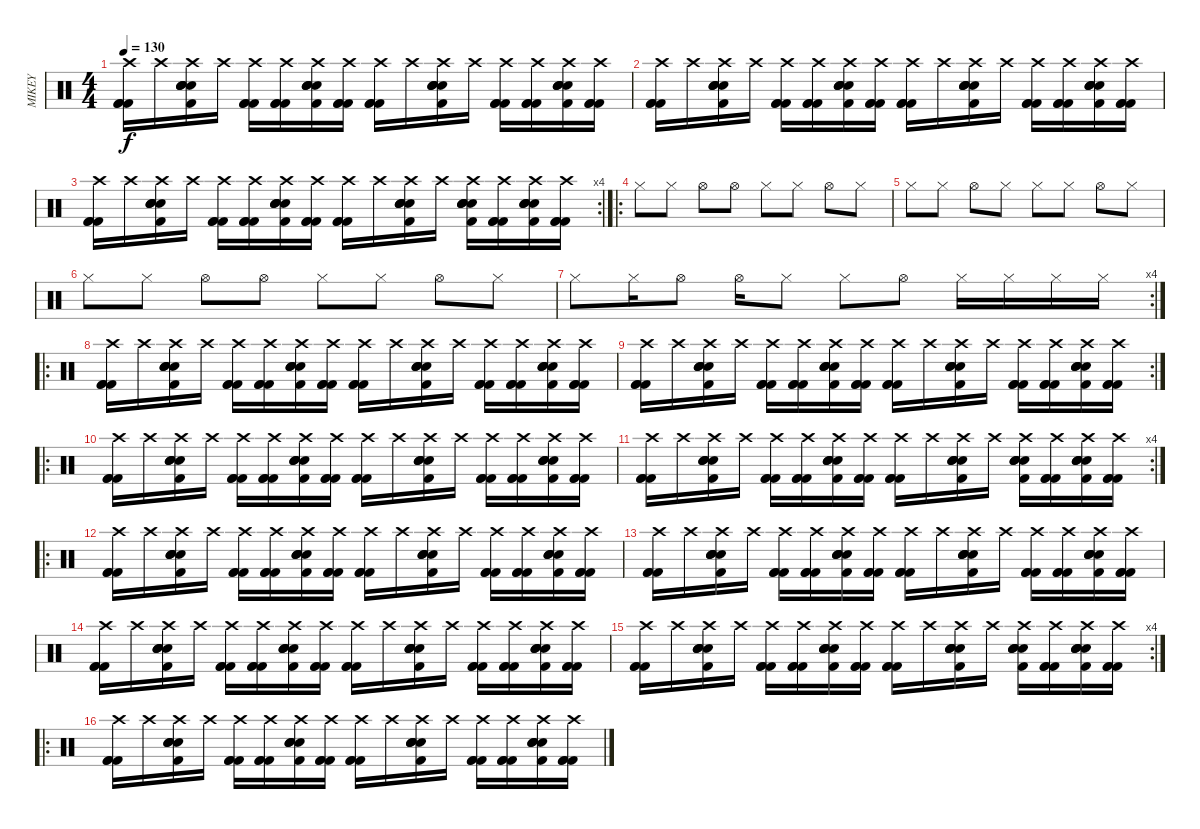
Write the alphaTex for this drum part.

\track ("MIKEY" "MIKEY") {instrument percussion}
\staff {score}
\articulation defaults
\ts (4 4)
\tempo 130
\clef neutral
\ks c
("Crash high (hit)" "Kick (hit) 2" "Kick (hit) 2" "Kick (hit) 2").16{dy f} "Crash high (hit)".16 ("Crash high (hit)" "Snare (hit) 2" "Kick (hit) 2" "Electric Snare (hit)" "Electric Snare (hit)" "Electric Snare (hit)").16 "Crash high (hit)".16 ("Crash high (hit)" "Kick (hit) 2" "Kick (hit) 2" "Kick (hit) 2").16 ("Crash high (hit)" "Kick (hit) 2" "Kick (hit) 2" "Kick (hit) 2").16 ("Crash high (hit)" "Snare (hit) 2" "Kick (hit) 2" "Electric Snare (hit)" "Electric Snare (hit)" "Electric Snare (hit)").16 ("Crash high (hit)" "Kick (hit) 2" "Kick (hit) 2" "Kick (hit) 2").16 ("Crash high (hit)" "Kick (hit) 2" "Kick (hit) 2" "Kick (hit) 2").16 "Crash high (hit)".16 ("Crash high (hit)" "Snare (hit) 2" "Kick (hit) 2" "Electric Snare (hit)" "Electric Snare (hit)" "Electric Snare (hit)").16 "Crash high (hit)".16 ("Crash high (hit)" "Kick (hit) 2" "Kick (hit) 2" "Kick (hit) 2").16 ("Crash high (hit)" "Kick (hit) 2" "Kick (hit) 2" "Kick (hit) 2").16 ("Crash high (hit)" "Snare (hit) 2" "Kick (hit) 2" "Electric Snare (hit)" "Electric Snare (hit)" "Electric Snare (hit)").16 ("Crash high (hit)" "Kick (hit) 2" "Kick (hit) 2" "Kick (hit) 2").16 |
("Crash high (hit)" "Kick (hit) 2" "Kick (hit) 2" "Kick (hit) 2").16 "Crash high (hit)".16 ("Crash high (hit)" "Snare (hit) 2" "Kick (hit) 2" "Electric Snare (hit)" "Electric Snare (hit)" "Electric Snare (hit)").16 "Crash high (hit)".16 ("Crash high (hit)" "Kick (hit) 2" "Kick (hit) 2" "Kick (hit) 2").16 ("Crash high (hit)" "Kick (hit) 2" "Kick (hit) 2" "Kick (hit) 2").16 ("Crash high (hit)" "Snare (hit) 2" "Kick (hit) 2" "Electric Snare (hit)" "Electric Snare (hit)" "Electric Snare (hit)").16 ("Crash high (hit)" "Kick (hit) 2" "Kick (hit) 2" "Kick (hit) 2").16 ("Crash high (hit)" "Kick (hit) 2" "Kick (hit) 2" "Kick (hit) 2").16 "Crash high (hit)".16 ("Crash high (hit)" "Snare (hit) 2" "Kick (hit) 2" "Electric Snare (hit)" "Electric Snare (hit)" "Electric Snare (hit)").16 "Crash high (hit)".16 ("Crash high (hit)" "Kick (hit) 2" "Kick (hit) 2" "Kick (hit) 2").16 ("Crash high (hit)" "Kick (hit) 2" "Kick (hit) 2" "Kick (hit) 2").16 ("Crash high (hit)" "Snare (hit) 2" "Kick (hit) 2" "Electric Snare (hit)" "Electric Snare (hit)" "Electric Snare (hit)").16 ("Crash high (hit)" "Kick (hit) 2" "Kick (hit) 2" "Kick (hit) 2").16 |
\rc 4
("Crash high (hit)" "Kick (hit) 2" "Kick (hit) 2" "Kick (hit) 2").16 "Crash high (hit)".16 ("Crash high (hit)" "Snare (hit) 2" "Kick (hit) 2" "Electric Snare (hit)" "Electric Snare (hit)" "Electric Snare (hit)").16 "Crash high (hit)".16 ("Crash high (hit)" "Kick (hit) 2" "Kick (hit) 2" "Kick (hit) 2").16 ("Crash high (hit)" "Kick (hit) 2" "Kick (hit) 2" "Kick (hit) 2").16 ("Crash high (hit)" "Snare (hit) 2" "Kick (hit) 2" "Electric Snare (hit)" "Electric Snare (hit)" "Electric Snare (hit)").16 ("Crash high (hit)" "Kick (hit) 2" "Kick (hit) 2" "Kick (hit) 2").16 ("Crash high (hit)" "Kick (hit) 2" "Kick (hit) 2" "Kick (hit) 2").16 "Crash high (hit)".16 ("Crash high (hit)" "Snare (hit) 2" "Kick (hit) 2" "Electric Snare (hit)" "Electric Snare (hit)" "Electric Snare (hit)").16 "Crash high (hit)".16 ("Crash high (hit)" "Snare (hit) 2" "Kick (hit) 2" "Electric Snare (hit)" "Electric Snare (hit)" "Electric Snare (hit)").16 ("Crash high (hit)" "Kick (hit) 2" "Kick (hit) 2" "Kick (hit) 2").16 ("Crash high (hit)" "Snare (hit) 2" "Kick (hit) 2" "Electric Snare (hit)" "Electric Snare (hit)" "Electric Snare (hit)").16 ("Crash high (hit)" "Kick (hit) 2" "Kick (hit) 2" "Kick (hit) 2").16 |
\ro "Hi-Hat (closed)".8 "Hi-Hat (closed)".8 "Hi-Hat (open)".8 "Hi-Hat (open)".8 "Hi-Hat (closed)".8 "Hi-Hat (closed)".8 "Hi-Hat (open)".8 "Hi-Hat (closed)".8
|
"Hi-Hat (closed)".8 "Hi-Hat (closed)".8 "Hi-Hat (open)".8 "Hi-Hat (closed)".8 "Hi-Hat (closed)".8 "Hi-Hat (closed)".8 "Hi-Hat (open)".8 "Hi-Hat (closed)".8 |
"Hi-Hat (closed)".8 "Hi-Hat (closed)".8 "Hi-Hat (open)".8 "Hi-Hat (open)".8 "Hi-Hat (closed)".8 "Hi-Hat (closed)".8 "Hi-Hat (open)".8 "Hi-Hat (closed)".8 |
\rc 4 "Hi-Hat (closed)".8 "Hi-Hat (closed)".16 "Hi-Hat (open)".8 "Hi-Hat (open)".16 "Hi-Hat (closed)".8 "Hi-Hat (closed)".8 "Hi-Hat (open)".8 "Hi-Hat (closed)".16 "Hi-Hat (closed)".16 "Hi-Hat (closed)".16 "Hi-Hat (closed)".16
|
\ro
("Crash high (hit)" "Kick (hit) 2" "Kick (hit) 2" "Kick (hit) 2").16 "Crash high (hit)".16 ("Crash high (hit)" "Snare (hit) 2" "Kick (hit) 2" "Electric Snare (hit)" "Electric Snare (hit)" "Electric Snare (hit)").16 "Crash high (hit)".16 ("Crash high (hit)" "Kick (hit) 2" "Kick (hit) 2" "Kick (hit) 2").16 ("Crash high (hit)" "Kick (hit) 2" "Kick (hit) 2" "Kick (hit) 2").16 ("Crash high (hit)" "Snare (hit) 2" "Kick (hit) 2" "Electric Snare (hit)" "Electric Snare (hit)" "Electric Snare (hit)").16 ("Crash high (hit)" "Kick (hit) 2" "Kick (hit) 2" "Kick (hit) 2").16 ("Crash high (hit)" "Kick (hit) 2" "Kick (hit) 2" "Kick (hit) 2").16 "Crash high (hit)".16 ("Crash high (hit)" "Snare (hit) 2" "Kick (hit) 2" "Electric Snare (hit)" "Electric Snare (hit)" "Electric Snare (hit)").16 "Crash high (hit)".16 ("Crash high (hit)" "Kick (hit) 2" "Kick (hit) 2" "Kick (hit) 2").16 ("Crash high (hit)" "Kick (hit) 2" "Kick (hit) 2" "Kick (hit) 2").16 ("Crash high (hit)" "Snare (hit) 2" "Kick (hit) 2" "Electric Snare (hit)" "Electric Snare (hit)" "Electric Snare (hit)").16 ("Crash high (hit)" "Kick (hit) 2" "Kick (hit) 2" "Kick (hit) 2").16 |
\rc 2
("Crash high (hit)" "Kick (hit) 2" "Kick (hit) 2" "Kick (hit) 2").16 "Crash high (hit)".16 ("Crash high (hit)" "Snare (hit) 2" "Kick (hit) 2" "Electric Snare (hit)" "Electric Snare (hit)" "Electric Snare (hit)").16 "Crash high (hit)".16 ("Crash high (hit)" "Kick (hit) 2" "Kick (hit) 2" "Kick (hit) 2").16 ("Crash high (hit)" "Kick (hit) 2" "Kick (hit) 2" "Kick (hit) 2").16 ("Crash high (hit)" "Snare (hit) 2" "Kick (hit) 2" "Electric Snare (hit)" "Electric Snare (hit)" "Electric Snare (hit)").16 ("Crash high (hit)" "Kick (hit) 2" "Kick (hit) 2" "Kick (hit) 2").16 ("Crash high (hit)" "Kick (hit) 2" "Kick (hit) 2" "Kick (hit) 2").16 "Crash high (hit)".16 ("Crash high (hit)" "Snare (hit) 2" "Kick (hit) 2" "Electric Snare (hit)" "Electric Snare (hit)" "Electric Snare (hit)").16 "Crash high (hit)".16 ("Crash high (hit)" "Kick (hit) 2" "Kick (hit) 2" "Kick (hit) 2").16 ("Crash high (hit)" "Kick (hit) 2" "Kick (hit) 2" "Kick (hit) 2").16 ("Crash high (hit)" "Snare (hit) 2" "Kick (hit) 2" "Electric Snare (hit)" "Electric Snare (hit)" "Electric Snare (hit)").16 ("Crash high (hit)" "Kick (hit) 2" "Kick (hit) 2" "Kick (hit) 2").16 |
\ro
("Crash high (hit)" "Kick (hit) 2" "Kick (hit) 2" "Kick (hit) 2").16 "Crash high (hit)".16 ("Crash high (hit)" "Snare (hit) 2" "Kick (hit) 2" "Electric Snare (hit)" "Electric Snare (hit)" "Electric Snare (hit)").16 "Crash high (hit)".16 ("Crash high (hit)" "Kick (hit) 2" "Kick (hit) 2" "Kick (hit) 2").16 ("Crash high (hit)" "Kick (hit) 2" "Kick (hit) 2" "Kick (hit) 2").16 ("Crash high (hit)" "Snare (hit) 2" "Kick (hit) 2" "Electric Snare (hit)" "Electric Snare (hit)" "Electric Snare (hit)").16 ("Crash high (hit)" "Kick (hit) 2" "Kick (hit) 2" "Kick (hit) 2").16 ("Crash high (hit)" "Kick (hit) 2" "Kick (hit) 2" "Kick (hit) 2").16 "Crash high (hit)".16 ("Crash high (hit)" "Snare (hit) 2" "Kick (hit) 2" "Electric Snare (hit)" "Electric Snare (hit)" "Electric Snare (hit)").16 "Crash high (hit)".16 ("Crash high (hit)" "Kick (hit) 2" "Kick (hit) 2" "Kick (hit) 2").16 ("Crash high (hit)" "Kick (hit) 2" "Kick (hit) 2" "Kick (hit) 2").16 ("Crash high (hit)" "Snare (hit) 2" "Kick (hit) 2" "Electric Snare (hit)" "Electric Snare (hit)" "Electric Snare (hit)").16 ("Crash high (hit)" "Kick (hit) 2" "Kick (hit) 2" "Kick (hit) 2").16 |
\rc 4
("Crash high (hit)" "Kick (hit) 2" "Kick (hit) 2" "Kick (hit) 2").16 "Crash high (hit)".16 ("Crash high (hit)" "Snare (hit) 2" "Kick (hit) 2" "Electric Snare (hit)" "Electric Snare (hit)" "Electric Snare (hit)").16 "Crash high (hit)".16 ("Crash high (hit)" "Kick (hit) 2" "Kick (hit) 2" "Kick (hit) 2").16 ("Crash high (hit)" "Kick (hit) 2" "Kick (hit) 2" "Kick (hit) 2").16 ("Crash high (hit)" "Snare (hit) 2" "Kick (hit) 2" "Electric Snare (hit)" "Electric Snare (hit)" "Electric Snare (hit)").16 ("Crash high (hit)" "Kick (hit) 2" "Kick (hit) 2" "Kick (hit) 2").16 ("Crash high (hit)" "Kick (hit) 2" "Kick (hit) 2" "Kick (hit) 2").16 "Crash high (hit)".16 ("Crash high (hit)" "Snare (hit) 2" "Kick (hit) 2" "Electric Snare (hit)" "Electric Snare (hit)" "Electric Snare (hit)").16 "Crash high (hit)".16 ("Crash high (hit)" "Snare (hit) 2" "Kick (hit) 2" "Electric Snare (hit)" "Electric Snare (hit)" "Electric Snare (hit)").16 ("Crash high (hit)" "Kick (hit) 2" "Kick (hit) 2" "Kick (hit) 2").16 ("Crash high (hit)" "Snare (hit) 2" "Kick (hit) 2" "Electric Snare (hit)" "Electric Snare (hit)" "Electric Snare (hit)").16 ("Crash high (hit)" "Kick (hit) 2" "Kick (hit) 2" "Kick (hit) 2").16 |
\ro
("Crash high (hit)" "Kick (hit) 2" "Kick (hit) 2" "Kick (hit) 2").16 "Crash high (hit)".16 ("Crash high (hit)" "Snare (hit) 2" "Kick (hit) 2" "Electric Snare (hit)" "Electric Snare (hit)" "Electric Snare (hit)").16 "Crash high (hit)".16 ("Crash high (hit)" "Kick (hit) 2" "Kick (hit) 2" "Kick (hit) 2").16 ("Crash high (hit)" "Kick (hit) 2" "Kick (hit) 2" "Kick (hit) 2").16 ("Crash high (hit)" "Snare (hit) 2" "Kick (hit) 2" "Electric Snare (hit)" "Electric Snare (hit)" "Electric Snare (hit)").16 ("Crash high (hit)" "Kick (hit) 2" "Kick (hit) 2" "Kick (hit) 2").16 ("Crash high (hit)" "Kick (hit) 2" "Kick (hit) 2" "Kick (hit) 2").16 "Crash high (hit)".16 ("Crash high (hit)" "Snare (hit) 2" "Kick (hit) 2" "Electric Snare (hit)" "Electric Snare (hit)" "Electric Snare (hit)").16 "Crash high (hit)".16 ("Crash high (hit)" "Kick (hit) 2" "Kick (hit) 2" "Kick (hit) 2").16 ("Crash high (hit)" "Kick (hit) 2" "Kick (hit) 2" "Kick (hit) 2").16 ("Crash high (hit)" "Snare (hit) 2" "Kick (hit) 2" "Electric Snare (hit)" "Electric Snare (hit)" "Electric Snare (hit)").16 ("Crash high (hit)" "Kick (hit) 2" "Kick (hit) 2" "Kick (hit) 2").16 |
("Crash high (hit)" "Kick (hit) 2" "Kick (hit) 2" "Kick (hit) 2").16 "Crash high (hit)".16 ("Crash high (hit)" "Snare (hit) 2" "Kick (hit) 2" "Electric Snare (hit)" "Electric Snare (hit)" "Electric Snare (hit)").16 "Crash high (hit)".16 ("Crash high (hit)" "Kick (hit) 2" "Kick (hit) 2" "Kick (hit) 2").16 ("Crash high (hit)" "Kick (hit) 2" "Kick (hit) 2" "Kick (hit) 2").16 ("Crash high (hit)" "Snare (hit) 2" "Kick (hit) 2" "Electric Snare (hit)" "Electric Snare (hit)" "Electric Snare (hit)").16 ("Crash high (hit)" "Kick (hit) 2" "Kick (hit) 2" "Kick (hit) 2").16 ("Crash high (hit)" "Kick (hit) 2" "Kick (hit) 2" "Kick (hit) 2").16 "Crash high (hit)".16 ("Crash high (hit)" "Snare (hit) 2" "Kick (hit) 2" "Electric Snare (hit)" "Electric Snare (hit)" "Electric Snare (hit)").16 "Crash high (hit)".16 ("Crash high (hit)" "Kick (hit) 2" "Kick (hit) 2" "Kick (hit) 2").16 ("Crash high (hit)" "Kick (hit) 2" "Kick (hit) 2" "Kick (hit) 2").16 ("Crash high (hit)" "Snare (hit) 2" "Kick (hit) 2" "Electric Snare (hit)" "Electric Snare (hit)" "Electric Snare (hit)").16 ("Crash high (hit)" "Kick (hit) 2" "Kick (hit) 2" "Kick (hit) 2").16 |
("Crash high (hit)" "Kick (hit) 2" "Kick (hit) 2" "Kick (hit) 2").16 "Crash high (hit)".16 ("Crash high (hit)" "Snare (hit) 2" "Kick (hit) 2" "Electric Snare (hit)" "Electric Snare (hit)" "Electric Snare (hit)").16 "Crash high (hit)".16 ("Crash high (hit)" "Kick (hit) 2" "Kick (hit) 2" "Kick (hit) 2").16 ("Crash high (hit)" "Kick (hit) 2" "Kick (hit) 2" "Kick (hit) 2").16 ("Crash high (hit)" "Snare (hit) 2" "Kick (hit) 2" "Electric Snare (hit)" "Electric Snare (hit)" "Electric Snare (hit)").16 ("Crash high (hit)" "Kick (hit) 2" "Kick (hit) 2" "Kick (hit) 2").16 ("Crash high (hit)" "Kick (hit) 2" "Kick (hit) 2" "Kick (hit) 2").16 "Crash high (hit)".16 ("Crash high (hit)" "Snare (hit) 2" "Kick (hit) 2" "Electric Snare (hit)" "Electric Snare (hit)" "Electric Snare (hit)").16 "Crash high (hit)".16 ("Crash high (hit)" "Kick (hit) 2" "Kick (hit) 2" "Kick (hit) 2").16 ("Crash high (hit)" "Kick (hit) 2" "Kick (hit) 2" "Kick (hit) 2").16 ("Crash high (hit)" "Snare (hit) 2" "Kick (hit) 2" "Electric Snare (hit)" "Electric Snare (hit)" "Electric Snare (hit)").16 ("Crash high (hit)" "Kick (hit) 2" "Kick (hit) 2" "Kick (hit) 2").16 |
\rc 4
("Crash high (hit)" "Kick (hit) 2" "Kick (hit) 2" "Kick (hit) 2").16 "Crash high (hit)".16 ("Crash high (hit)" "Snare (hit) 2" "Kick (hit) 2" "Electric Snare (hit)" "Electric Snare (hit)" "Electric Snare (hit)").16 "Crash high (hit)".16 ("Crash high (hit)" "Kick (hit) 2" "Kick (hit) 2" "Kick (hit) 2").16 ("Crash high (hit)" "Kick (hit) 2" "Kick (hit) 2" "Kick (hit) 2").16 ("Crash high (hit)" "Snare (hit) 2" "Kick (hit) 2" "Electric Snare (hit)" "Electric Snare (hit)" "Electric Snare (hit)").16 ("Crash high (hit)" "Kick (hit) 2" "Kick (hit) 2" "Kick (hit) 2").16 ("Crash high (hit)" "Kick (hit) 2" "Kick (hit) 2" "Kick (hit) 2").16 "Crash high (hit)".16 ("Crash high (hit)" "Snare (hit) 2" "Kick (hit) 2" "Electric Snare (hit)" "Electric Snare (hit)" "Electric Snare (hit)").16 "Crash high (hit)".16 ("Crash high (hit)" "Snare (hit) 2" "Kick (hit) 2" "Electric Snare (hit)" "Electric Snare (hit)" "Electric Snare (hit)").16 ("Crash high (hit)" "Kick (hit) 2" "Kick (hit) 2" "Kick (hit) 2").16 ("Crash high (hit)" "Snare (hit) 2" "Kick (hit) 2" "Electric Snare (hit)" "Electric Snare (hit)" "Electric Snare (hit)").16 ("Crash high (hit)" "Kick (hit) 2" "Kick (hit) 2" "Kick (hit) 2").16 |
\ro
("Crash high (hit)" "Kick (hit) 2" "Kick (hit) 2" "Kick (hit) 2").16 "Crash high (hit)".16 ("Crash high (hit)" "Snare (hit) 2" "Kick (hit) 2" "Electric Snare (hit)" "Electric Snare (hit)" "Electric Snare (hit)").16 "Crash high (hit)".16 ("Crash high (hit)" "Kick (hit) 2" "Kick (hit) 2" "Kick (hit) 2").16 ("Crash high (hit)" "Kick (hit) 2" "Kick (hit) 2" "Kick (hit) 2").16 ("Crash high (hit)" "Snare (hit) 2" "Kick (hit) 2" "Electric Snare (hit)" "Electric Snare (hit)" "Electric Snare (hit)").16 ("Crash high (hit)" "Kick (hit) 2" "Kick (hit) 2" "Kick (hit) 2").16 ("Crash high (hit)" "Kick (hit) 2" "Kick (hit) 2" "Kick (hit) 2").16 "Crash high (hit)".16 ("Crash high (hit)" "Snare (hit) 2" "Kick (hit) 2" "Electric Snare (hit)" "Electric Snare (hit)" "Electric Snare (hit)").16 "Crash high (hit)".16 ("Crash high (hit)" "Kick (hit) 2" "Kick (hit) 2" "Kick (hit) 2").16 ("Crash high (hit)" "Kick (hit) 2" "Kick (hit) 2" "Kick (hit) 2").16 ("Crash high (hit)" "Snare (hit) 2" "Kick (hit) 2" "Electric Snare (hit)" "Electric Snare (hit)" "Electric Snare (hit)").16 ("Crash high (hit)" "Kick (hit) 2" "Kick (hit) 2" "Kick (hit) 2").16
